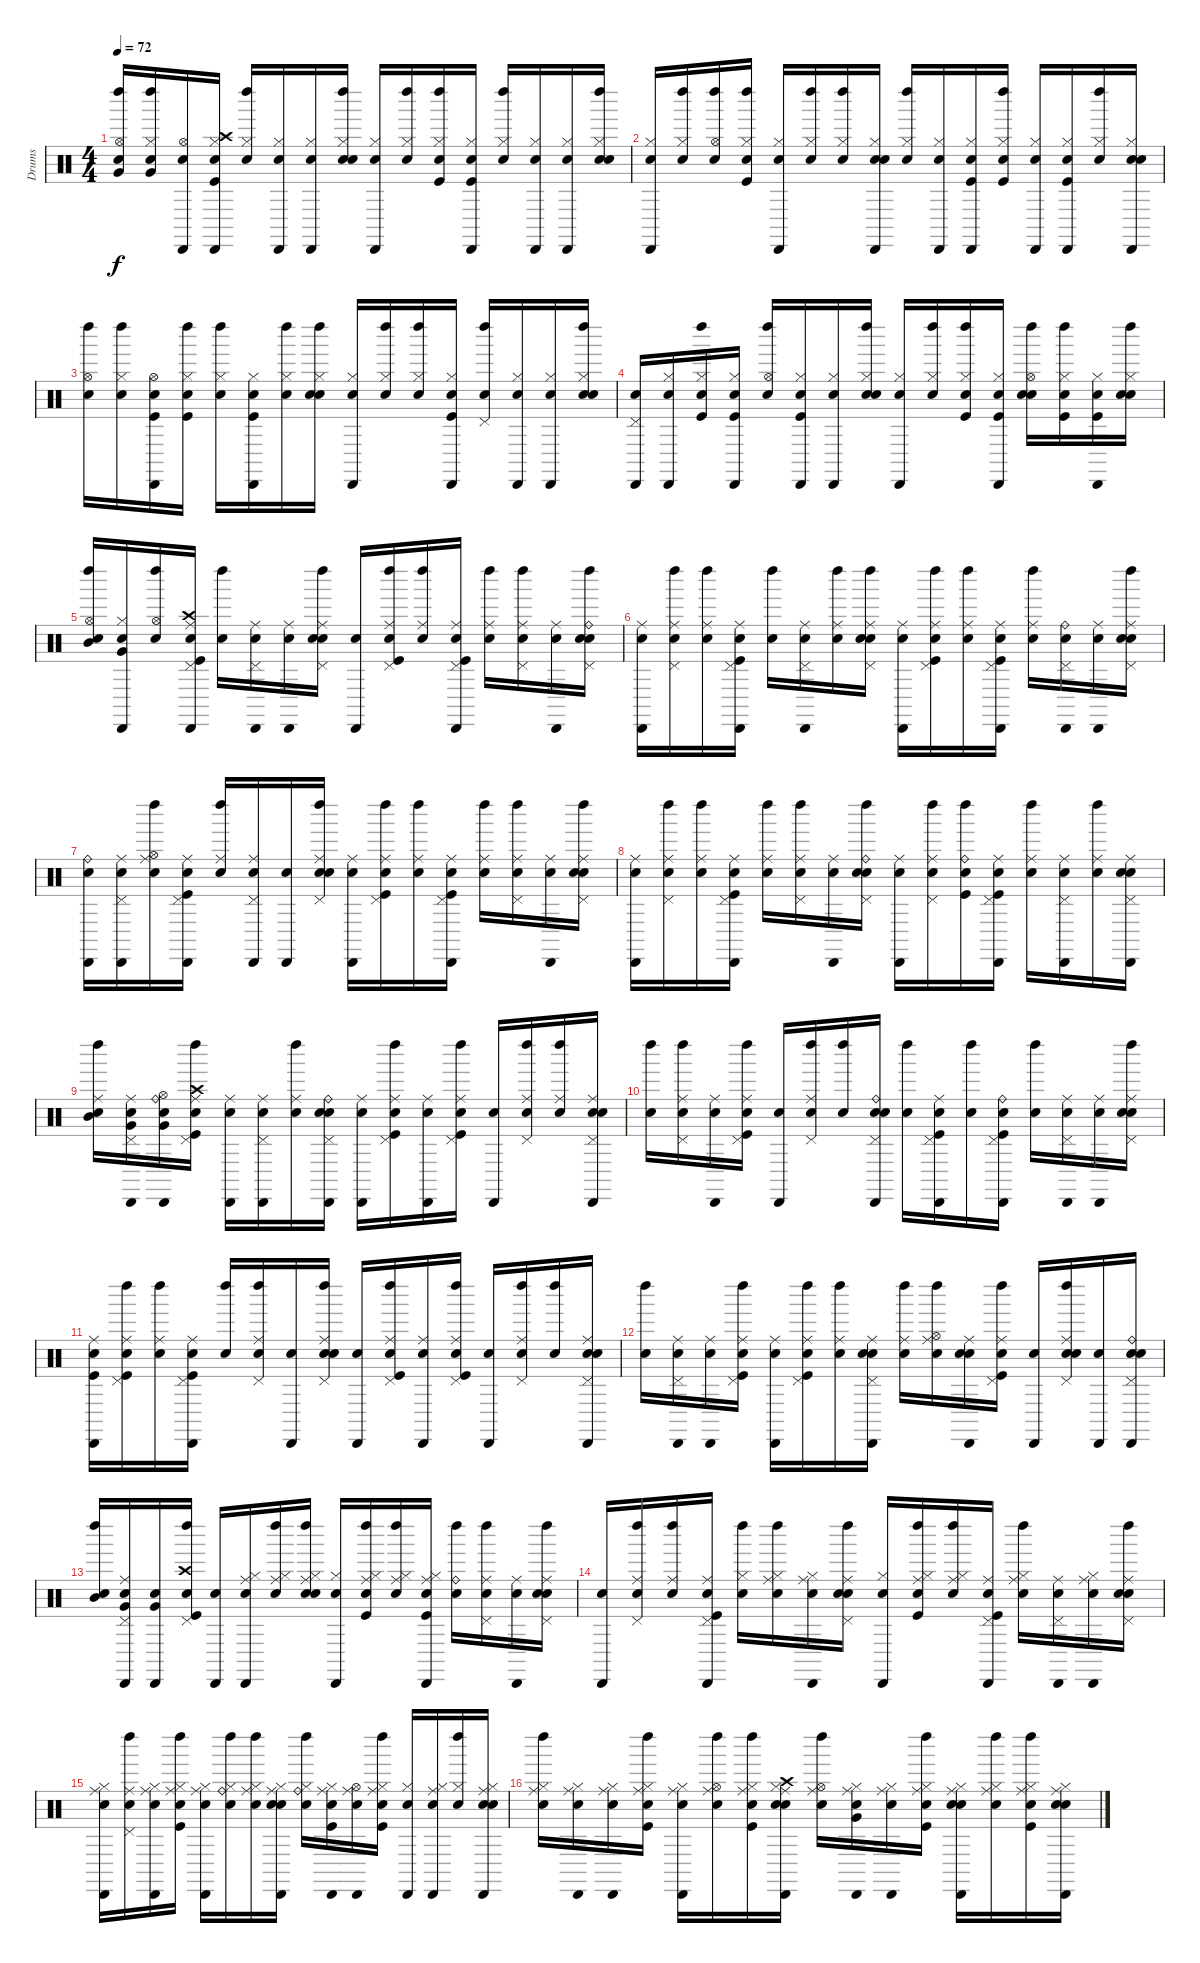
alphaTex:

\track ("Drums   " "Drums   ") {instrument percussion}
\staff {score}
\articulation defaults
\ts (4 4)
\tempo 72
\clef neutral
\ks c
("Snare (hit)" "Left Maraca (hit)" "Very Low Tom (hit)" "Hi-Hat (open)").16{dy f} ("Snare (hit)" "Left Maraca (hit)" "Hi-Hat (closed)" "Very Low Tom (hit)").16 ("Snare (hit)" "Cabasa (hit)" "Hi-Hat (open)").16 ("Snare (hit)" "Cabasa (hit)" "Kick (hit)" "Crash high (hit)" "Hi-Hat (closed)").16 ("Snare (hit)" "Hi-Hat (closed)" "Left Maraca (hit)").16 ("Snare (hit)" "Cabasa (hit)" "Hi-Hat (closed)").16 ("Snare (hit)" "Cabasa (hit)" "Hi-Hat (closed)").16 ("Snare (hit)" "Hi-Hat (closed)" "Snare (hit) 2" "Left Maraca (hit)").16 ("Snare (hit)" "Hi-Hat (closed)" "Cabasa (hit)").16 ("Snare (hit)" "Hi-Hat (closed)" "Left Maraca (hit)").16 ("Snare (hit)" "Kick (hit)" "Hi-Hat (closed)" "Left Maraca (hit)").16 ("Snare (hit)" "Kick (hit)" "Hi-Hat (closed)" "Cabasa (hit)").16 ("Snare (hit)" "Hi-Hat (closed)" "Left Maraca (hit)").16 ("Snare (hit)" "Hi-Hat (closed)" "Cabasa (hit)").16 ("Snare (hit)" "Hi-Hat (closed)" "Cabasa (hit)").16 ("Snare (hit)" "Snare (hit) 2" "Hi-Hat (closed)" "Left Maraca (hit)").16 |
("Snare (hit)" "Cabasa (hit)" "Hi-Hat (closed)").16 ("Snare (hit)" "Left Maraca (hit)" "Hi-Hat (closed)").16 ("Snare (hit)" "Hi-Hat (open)" "Left Maraca (hit)").16 ("Snare (hit)" "Hi-Hat (closed)" "Left Maraca (hit)" "Kick (hit)").16 ("Snare (hit)" "Cabasa (hit)" "Hi-Hat (closed)").16 ("Snare (hit)" "Hi-Hat (closed)" "Left Maraca (hit)").16 ("Snare (hit)" "Hi-Hat (closed)" "Left Maraca (hit)").16 ("Snare (hit)" "Hi-Hat (closed)" "Snare (hit) 2" "Cabasa (hit)").16 ("Snare (hit)" "Hi-Hat (closed)" "Left Maraca (hit)").16 ("Snare (hit)" "Cabasa (hit)" "Hi-Hat (closed)").16 ("Snare (hit)" "Kick (hit)" "Hi-Hat (closed)" "Cabasa (hit)").16 ("Snare (hit)" "Kick (hit)" "Left Maraca (hit)" "Hi-Hat (closed)").16 ("Snare (hit)" "Cabasa (hit)" "Hi-Hat (closed)").16 ("Snare (hit)" "Cabasa (hit)" "Kick (hit)" "Hi-Hat (closed)").16 ("Snare (hit)" "Hi-Hat (closed)" "Left Maraca (hit)").16 ("Snare (hit)" "Hi-Hat (closed)" "Cabasa (hit)" "Snare (hit) 2").16 |
("Snare (hit)" "Hi-Hat (open)" "Left Maraca (hit)").16 ("Snare (hit)" "Hi-Hat (closed)" "Left Maraca (hit)").16 ("Snare (hit)" "Kick (hit)" "Hi-Hat (open)" "Cabasa (hit)").16 ("Snare (hit)" "Kick (hit)" "Hi-Hat (closed)" "Left Maraca (hit)").16 ("Snare (hit)" "Left Maraca (hit)" "Hi-Hat (closed)").16 ("Snare (hit)" "Cabasa (hit)" "Kick (hit)" "Hi-Hat (closed)").16 ("Snare (hit)" "Hi-Hat (closed)" "Left Maraca (hit)").16 ("Snare (hit)" "Snare (hit) 2" "Hi-Hat (closed)" "Left Maraca (hit)").16 ("Snare (hit)" "Hi-Hat (closed)" "Cabasa (hit)").16 ("Snare (hit)" "Left Maraca (hit)" "Hi-Hat (closed)").16 ("Snare (hit)" "Left Maraca (hit)" "Hi-Hat (closed)").16 ("Snare (hit)" "Kick (hit)" "Hi-Hat (closed)" "Cabasa (hit)").16 ("Snare (hit)" "Pedal Hi-Hat (hit)" "Left Maraca (hit)").16 ("Snare (hit)" "Cabasa (hit)" "Hi-Hat (closed)").16 ("Snare (hit)" "Hi-Hat (closed)" "Cabasa (hit)").16 ("Snare (hit)" "Hi-Hat (closed)" "Left Maraca (hit)" "Snare (hit) 2").16 |
("Snare (hit)" "Pedal Hi-Hat (hit)" "Cabasa (hit)").16 ("Snare (hit)" "Cabasa (hit)" "Hi-Hat (closed)").16 ("Snare (hit)" "Hi-Hat (closed)" "Kick (hit)" "Left Maraca (hit)").16 ("Snare (hit)" "Cabasa (hit)" "Kick (hit)" "Hi-Hat (closed)").16 ("Snare (hit)" "Hi-Hat (open)" "Left Maraca (hit)").16 ("Snare (hit)" "Hi-Hat (closed)" "Cabasa (hit)" "Kick (hit)").16 ("Snare (hit)" "Hi-Hat (closed)" "Cabasa (hit)").16 ("Snare (hit)" "Snare (hit) 2" "Hi-Hat (closed)" "Left Maraca (hit)").16 ("Snare (hit)" "Hi-Hat (closed)" "Cabasa (hit)").16 ("Snare (hit)" "Left Maraca (hit)" "Hi-Hat (closed)").16 ("Snare (hit)" "Hi-Hat (closed)" "Kick (hit)" "Left Maraca (hit)").16 ("Snare (hit)" "Cabasa (hit)" "Kick (hit)" "Hi-Hat (closed)").16 ("Snare (hit)" "Hi-Hat (open)" "Snare (hit) 2" "Left Maraca (hit)").16 ("Snare (hit)" "Hi-Hat (closed)" "Kick (hit)" "Left Maraca (hit)").16 ("Snare (hit)" "Kick (hit)" "Hi-Hat (closed)" "Cabasa (hit)").16 ("Snare (hit)" "Hi-Hat (closed)" "Snare (hit) 2" "Left Maraca (hit)").16 |
("Snare (hit)" "Mid Tom (hit)" "Left Maraca (hit)" "Hi-Hat (open)").16 ("Snare (hit)" "Very Low Tom (hit)" "Hi-Hat (closed)" "Cabasa (hit)").16 ("Snare (hit)" "Hi-Hat (open)" "Left Maraca (hit)").16 ("Snare (hit)" "Pedal Hi-Hat (hit)" "Cabasa (hit)" "Kick (hit)" "Crash high (hit)" "Ride (middle)").16 ("Snare (hit)" "Left Maraca (hit)").16 ("Snare (hit)" "Ride (middle)" "Pedal Hi-Hat (hit)" "Cabasa (hit)").16 ("Snare (hit)" "Ride (middle)" "Cabasa (hit)").16 ("Snare (hit)" "Pedal Hi-Hat (hit)" "Left Maraca (hit)" "Snare (hit) 2" "Ride (middle)").16 ("Snare (hit)" "Cabasa (hit)").16 ("Snare (hit)" "Left Maraca (hit)" "Kick (hit)" "Pedal Hi-Hat (hit)" "Ride (middle)").16 ("Snare (hit)" "Ride (middle)" "Left Maraca (hit)").16 ("Snare (hit)" "Cabasa (hit)" "Pedal Hi-Hat (hit)" "Kick (hit)" "Ride (middle)").16 ("Snare (hit)" "Left Maraca (hit)" "Ride (middle)").16 ("Snare (hit)" "Ride (middle)" "Left Maraca (hit)" "Pedal Hi-Hat (hit)").16 ("Snare (hit)" "Ride (middle)" "Cabasa (hit)").16 ("Snare (hit)" "Ride (bell)" "Snare (hit) 2" "Pedal Hi-Hat (hit)" "Left Maraca (hit)").16 |
("Snare (hit)" "Cabasa (hit)" "Ride (middle)").16 ("Snare (hit)" "Ride (middle)" "Pedal Hi-Hat (hit)" "Left Maraca (hit)").16 ("Snare (hit)" "Ride (middle)" "Left Maraca (hit)").16 ("Snare (hit)" "Pedal Hi-Hat (hit)" "Cabasa (hit)" "Kick (hit)" "Ride (middle)").16 ("Snare (hit)" "Left Maraca (hit)").16 ("Snare (hit)" "Ride (middle)" "Cabasa (hit)" "Pedal Hi-Hat (hit)").16 ("Snare (hit)" "Left Maraca (hit)" "Ride (middle)").16 ("Snare (hit)" "Left Maraca (hit)" "Snare (hit) 2" "Pedal Hi-Hat (hit)" "Ride (middle)").16 ("Snare (hit)" "Cabasa (hit)" "Ride (middle)").16 ("Snare (hit)" "Pedal Hi-Hat (hit)" "Ride (middle)" "Left Maraca (hit)" "Kick (hit)").16 ("Snare (hit)" "Ride (middle)" "Left Maraca (hit)").16 ("Snare (hit)" "Kick (hit)" "Ride (middle)" "Cabasa (hit)" "Pedal Hi-Hat (hit)").16 ("Snare (hit)" "Ride (middle)" "Left Maraca (hit)").16 ("Snare (hit)" "Ride (bell)" "Pedal Hi-Hat (hit)" "Cabasa (hit)").16 ("Snare (hit)" "Cabasa (hit)" "Ride (middle)").16 ("Snare (hit)" "Snare (hit) 2" "Pedal Hi-Hat (hit)" "Ride (middle)" "Left Maraca (hit)").16 |
("Snare (hit)" "Ride (bell)" "Cabasa (hit)").16 ("Snare (hit)" "Pedal Hi-Hat (hit)" "Ride (middle)" "Cabasa (hit)").16 ("Snare (hit)" "Hi-Hat (open)" "Ride (middle)" "Left Maraca (hit)").16 ("Snare (hit)" "Ride (middle)" "Pedal Hi-Hat (hit)" "Cabasa (hit)" "Kick (hit)").16 ("Snare (hit)" "Left Maraca (hit)" "Ride (middle)").16 ("Snare (hit)" "Cabasa (hit)" "Pedal Hi-Hat (hit)" "Ride (middle)").16 ("Snare (hit)" "Cabasa (hit)").16 ("Snare (hit)" "Pedal Hi-Hat (hit)" "Snare (hit) 2" "Ride (middle)" "Left Maraca (hit)").16 ("Snare (hit)" "Ride (middle)" "Cabasa (hit)").16 ("Snare (hit)" "Ride (middle)" "Left Maraca (hit)" "Kick (hit)" "Pedal Hi-Hat (hit)").16 ("Snare (hit)" "Ride (middle)" "Left Maraca (hit)").16 ("Snare (hit)" "Pedal Hi-Hat (hit)" "Kick (hit)" "Ride (middle)" "Cabasa (hit)").16 ("Snare (hit)" "Ride (middle)" "Left Maraca (hit)").16 ("Snare (hit)" "Left Maraca (hit)" "Pedal Hi-Hat (hit)" "Ride (middle)").16 ("Snare (hit)" "Ride (middle)" "Cabasa (hit)").16 ("Snare (hit)" "Snare (hit) 2" "Pedal Hi-Hat (hit)" "Ride (middle)" "Left Maraca (hit)").16 |
("Snare (hit)" "Ride (middle)" "Cabasa (hit)").16 ("Snare (hit)" "Pedal Hi-Hat (hit)" "Ride (middle)" "Left Maraca (hit)").16 ("Snare (hit)" "Ride (middle)" "Left Maraca (hit)").16 ("Snare (hit)" "Cabasa (hit)" "Kick (hit)" "Pedal Hi-Hat (hit)" "Ride (middle)").16 ("Snare (hit)" "Ride (middle)" "Left Maraca (hit)").16 ("Snare (hit)" "Ride (middle)" "Pedal Hi-Hat (hit)" "Left Maraca (hit)").16 ("Snare (hit)" "Cabasa (hit)" "Ride (middle)").16 ("Snare (hit)" "Ride (bell)" "Left Maraca (hit)" "Snare (hit) 2" "Pedal Hi-Hat (hit)").16 ("Snare (hit)" "Ride (middle)" "Cabasa (hit)").16 ("Snare (hit)" "Left Maraca (hit)" "Ride (middle)" "Pedal Hi-Hat (hit)").16 ("Snare (hit)" "Ride (bell)" "Left Maraca (hit)" "Kick (hit)").16 ("Snare (hit)" "Cabasa (hit)" "Kick (hit)" "Ride (middle)" "Pedal Hi-Hat (hit)").16 ("Snare (hit)" "Ride (middle)" "Left Maraca (hit)").16 ("Snare (hit)" "Cabasa (hit)" "Ride (middle)" "Pedal Hi-Hat (hit)").16 ("Snare (hit)" "Ride (middle)" "Left Maraca (hit)").16 ("Snare (hit)" "Ride (middle)" "Snare (hit) 2" "Pedal Hi-Hat (hit)" "Cabasa (hit)").16 |
("Snare (hit)" "Ride (middle)" "Left Maraca (hit)" "Mid Tom (hit)").16 ("Snare (hit)" "Cabasa (hit)" "Pedal Hi-Hat (hit)" "Very Low Tom (hit)" "Ride (middle)").16 ("Snare (hit)" "Cabasa (hit)" "Hi-Hat (open)" "Very Low Tom (hit)" "Ride (bell)").16 ("Snare (hit)" "Ride (middle)" "Pedal Hi-Hat (hit)" "Kick (hit)" "Crash high (hit)" "Left Maraca (hit)").16 ("Snare (hit)" "Ride (middle)" "Cabasa (hit)").16 ("Snare (hit)" "Cabasa (hit)" "Pedal Hi-Hat (hit)" "Ride (middle)").16 ("Snare (hit)" "Left Maraca (hit)" "Ride (middle)").16 ("Snare (hit)" "Cabasa (hit)" "Pedal Hi-Hat (hit)" "Snare (hit) 2" "Ride (bell)").16 ("Snare (hit)" "Ride (middle)" "Cabasa (hit)").16 ("Snare (hit)" "Ride (middle)" "Kick (hit)" "Pedal Hi-Hat (hit)" "Left Maraca (hit)").16 ("Snare (hit)" "Ride (middle)" "Cabasa (hit)").16 ("Snare (hit)" "Ride (middle)" "Kick (hit)" "Pedal Hi-Hat (hit)" "Left Maraca (hit)").16 ("Snare (hit)" "Cabasa (hit)").16 ("Snare (hit)" "Ride (middle)" "Pedal Hi-Hat (hit)" "Left Maraca (hit)").16 ("Snare (hit)" "Left Maraca (hit)" "Ride (middle)").16 ("Snare (hit)" "Cabasa (hit)" "Ride (middle)" "Snare (hit) 2" "Pedal Hi-Hat (hit)").16 |
("Snare (hit)" "Left Maraca (hit)").16 ("Snare (hit)" "Pedal Hi-Hat (hit)" "Ride (middle)" "Left Maraca (hit)").16 ("Snare (hit)" "Cabasa (hit)" "Ride (middle)").16 ("Snare (hit)" "Pedal Hi-Hat (hit)" "Kick (hit)" "Ride (middle)" "Left Maraca (hit)").16 ("Snare (hit)" "Cabasa (hit)").16 ("Snare (hit)" "Pedal Hi-Hat (hit)" "Ride (middle)" "Left Maraca (hit)").16 ("Snare (hit)" "Left Maraca (hit)").16 ("Snare (hit)" "Snare (hit) 2" "Pedal Hi-Hat (hit)" "Ride (bell)" "Cabasa (hit)").16 ("Snare (hit)" "Left Maraca (hit)").16 ("Snare (hit)" "Ride (middle)" "Cabasa (hit)" "Kick (hit)" "Pedal Hi-Hat (hit)").16 ("Snare (hit)" "Left Maraca (hit)").16 ("Snare (hit)" "Pedal Hi-Hat (hit)" "Kick (hit)" "Cabasa (hit)" "Ride (bell)").16 ("Snare (hit)" "Left Maraca (hit)").16 ("Snare (hit)" "Cabasa (hit)" "Ride (middle)" "Pedal Hi-Hat (hit)").16 ("Snare (hit)" "Cabasa (hit)" "Ride (middle)").16 ("Snare (hit)" "Ride (middle)" "Pedal Hi-Hat (hit)" "Snare (hit) 2" "Left Maraca (hit)").16 |
("Snare (hit)" "Kick (hit)" "Ride (middle)" "Cabasa (hit)").16 ("Snare (hit)" "Pedal Hi-Hat (hit)" "Ride (middle)" "Kick (hit)" "Left Maraca (hit)").16 ("Snare (hit)" "Ride (middle)" "Left Maraca (hit)").16 ("Snare (hit)" "Ride (middle)" "Kick (hit)" "Cabasa (hit)" "Pedal Hi-Hat (hit)").16 ("Snare (hit)" "Left Maraca (hit)").16 ("Snare (hit)" "Ride (middle)" "Pedal Hi-Hat (hit)" "Left Maraca (hit)").16 ("Snare (hit)" "Cabasa (hit)").16 ("Snare (hit)" "Snare (hit) 2" "Pedal Hi-Hat (hit)" "Ride (middle)" "Left Maraca (hit)").16 ("Snare (hit)" "Cabasa (hit)").16 ("Snare (hit)" "Kick (hit)" "Pedal Hi-Hat (hit)" "Ride (middle)" "Left Maraca (hit)").16 ("Snare (hit)" "Ride (middle)" "Cabasa (hit)").16 ("Snare (hit)" "Ride (middle)" "Kick (hit)" "Pedal Hi-Hat (hit)" "Left Maraca (hit)").16 ("Snare (hit)" "Cabasa (hit)").16 ("Snare (hit)" "Left Maraca (hit)" "Pedal Hi-Hat (hit)" "Ride (middle)").16 ("Snare (hit)" "Left Maraca (hit)").16 ("Snare (hit)" "Pedal Hi-Hat (hit)" "Cabasa (hit)" "Snare (hit) 2" "Ride (middle)").16 |
("Snare (hit)" "Left Maraca (hit)").16 ("Snare (hit)" "Ride (middle)" "Pedal Hi-Hat (hit)" "Cabasa (hit)").16 ("Snare (hit)" "Cabasa (hit)" "Ride (middle)").16 ("Snare (hit)" "Pedal Hi-Hat (hit)" "Kick (hit)" "Left Maraca (hit)" "Ride (middle)").16 ("Snare (hit)" "Cabasa (hit)" "Ride (middle)").16 ("Snare (hit)" "Ride (middle)" "Pedal Hi-Hat (hit)" "Kick (hit)" "Left Maraca (hit)").16 ("Snare (hit)" "Ride (middle)" "Left Maraca (hit)").16 ("Snare (hit)" "Ride (middle)" "Snare (hit) 2" "Cabasa (hit)" "Pedal Hi-Hat (hit)").16 ("Snare (hit)" "Ride (middle)" "Left Maraca (hit)").16 ("Snare (hit)" "Ride (middle)" "Hi-Hat (open)" "Left Maraca (hit)").16 ("Snare (hit)" "Ride (middle)" "Cabasa (hit)" "Snare (hit) 2").16 ("Snare (hit)" "Pedal Hi-Hat (hit)" "Left Maraca (hit)" "Kick (hit)" "Ride (middle)").16 ("Snare (hit)" "Cabasa (hit)").16 ("Snare (hit)" "Pedal Hi-Hat (hit)" "Snare (hit) 2" "Ride (middle)" "Left Maraca (hit)").16 ("Snare (hit)" "Cabasa (hit)").16 ("Snare (hit)" "Snare (hit) 2" "Ride (bell)" "Cabasa (hit)" "Pedal Hi-Hat (hit)").16 |
("Snare (hit)" "Left Maraca (hit)" "Mid Tom (hit)").16 ("Snare (hit)" "Cabasa (hit)" "Pedal Hi-Hat (hit)" "Ride (middle)" "Very Low Tom (hit)").16 ("Snare (hit)" "Cabasa (hit)" "Very Low Tom (hit)").16 ("Snare (hit)" "Pedal Hi-Hat (hit)" "Kick (hit)" "Crash high (hit)" "Left Maraca (hit)").16 ("Snare (hit)" "Cabasa (hit)").16 ("Snare (hit)" "Hi-Hat (closed)" "Cabasa (hit)" "Ride (middle)").16 ("Snare (hit)" "Ride (middle)" "Left Maraca (hit)" "Hi-Hat (closed)").16 ("Snare (hit)" "Snare (hit) 2" "Hi-Hat (closed)" "Ride (middle)" "Left Maraca (hit)").16 ("Snare (hit)" "Cabasa (hit)" "Hi-Hat (closed)").16 ("Snare (hit)" "Kick (hit)" "Hi-Hat (closed)" "Ride (middle)" "Left Maraca (hit)").16 ("Snare (hit)" "Left Maraca (hit)" "Hi-Hat (closed)" "Ride (middle)").16 ("Snare (hit)" "Ride (middle)" "Cabasa (hit)" "Kick (hit)" "Hi-Hat (closed)").16 ("Snare (hit)" "Ride (bell)" "Left Maraca (hit)").16 ("Snare (hit)" "Ride (middle)" "Pedal Hi-Hat (hit)" "Left Maraca (hit)").16 ("Snare (hit)" "Ride (middle)" "Cabasa (hit)").16 ("Snare (hit)" "Ride (middle)" "Snare (hit) 2" "Pedal Hi-Hat (hit)" "Left Maraca (hit)").16 |
("Snare (hit)" "Cabasa (hit)").16 ("Snare (hit)" "Pedal Hi-Hat (hit)" "Left Maraca (hit)" "Ride (middle)").16 ("Snare (hit)" "Ride (middle)" "Left Maraca (hit)").16 ("Snare (hit)" "Pedal Hi-Hat (hit)" "Ride (middle)" "Kick (hit)" "Cabasa (hit)").16 ("Snare (hit)" "Hi-Hat (closed)" "Left Maraca (hit)").16 ("Snare (hit)" "Left Maraca (hit)" "Ride (middle)" "Hi-Hat (closed)").16 ("Snare (hit)" "Cabasa (hit)" "Hi-Hat (closed)" "Ride (middle)").16 ("Snare (hit)" "Ride (middle)" "Left Maraca (hit)" "Snare (hit) 2" "Pedal Hi-Hat (hit)").16 ("Snare (hit)" "Cabasa (hit)" "Hi-Hat (closed)").16 ("Snare (hit)" "Kick (hit)" "Hi-Hat (closed)" "Ride (middle)" "Left Maraca (hit)").16 ("Snare (hit)" "Hi-Hat (closed)" "Left Maraca (hit)" "Ride (middle)").16 ("Snare (hit)" "Ride (middle)" "Cabasa (hit)" "Pedal Hi-Hat (hit)" "Kick (hit)").16 ("Snare (hit)" "Ride (middle)" "Hi-Hat (closed)" "Left Maraca (hit)").16 ("Snare (hit)" "Cabasa (hit)" "Ride (middle)" "Pedal Hi-Hat (hit)").16 ("Snare (hit)" "Hi-Hat (closed)" "Cabasa (hit)" "Ride (middle)").16 ("Snare (hit)" "Pedal Hi-Hat (hit)" "Ride (middle)" "Snare (hit) 2" "Left Maraca (hit)").16 |
("Snare (hit)" "Ride (middle)" "Hi-Hat (closed)" "Cabasa (hit)").16 ("Snare (hit)" "Pedal Hi-Hat (hit)" "Ride (middle)" "Left Maraca (hit)").16 ("Snare (hit)" "Cabasa (hit)" "Hi-Hat (closed)" "Ride (middle)").16 ("Snare (hit)" "Ride (middle)" "Kick (hit)" "Hi-Hat (closed)" "Left Maraca (hit)").16 ("Snare (hit)" "Ride (middle)" "Hi-Hat (closed)" "Cabasa (hit)").16 ("Snare (hit)" "Ride (bell)" "Hi-Hat (closed)" "Left Maraca (hit)").16 ("Snare (hit)" "Hi-Hat (closed)" "Ride (middle)" "Left Maraca (hit)").16 ("Snare (hit)" "Cabasa (hit)" "Snare (hit) 2" "Hi-Hat (closed)" "Ride (middle)").16 ("Snare (hit)" "Left Maraca (hit)" "Hi-Hat (closed)" "Ride (bell)").16 ("Snare (hit)" "Ride (middle)" "Cabasa (hit)" "Kick (hit)" "Hi-Hat (closed)").16 ("Snare (hit)" "Cabasa (hit)" "Hi-Hat (open)" "Ride (middle)").16 ("Snare (hit)" "Ride (middle)" "Kick (hit)" "Hi-Hat (closed)" "Left Maraca (hit)").16 ("Snare (hit)" "Cabasa (hit)" "Hi-Hat (closed)").16 ("Snare (hit)" "Cabasa (hit)" "Hi-Hat (closed)" "Ride (middle)").16 ("Snare (hit)" "Hi-Hat (closed)" "Left Maraca (hit)").16 ("Snare (hit)" "Ride (middle)" "Cabasa (hit)" "Snare (hit) 2" "Hi-Hat (closed)").16 |
("Snare (hit)" "Hi-Hat (closed)" "Left Maraca (hit)" "Ride (middle)").16 ("Snare (hit)" "Cabasa (hit)" "Hi-Hat (closed)" "Ride (middle)").16 ("Snare (hit)" "Cabasa (hit)" "Hi-Hat (closed)" "Ride (middle)").16 ("Snare (hit)" "Kick (hit)" "Hi-Hat (closed)" "Ride (middle)" "Left Maraca (hit)").16 ("Snare (hit)" "Ride (middle)" "Hi-Hat (closed)" "Cabasa (hit)").16 ("Snare (hit)" "Hi-Hat (open)" "Left Maraca (hit)" "Ride (middle)").16 ("Snare (hit)" "Hi-Hat (closed)" "Kick (hit)" "Ride (middle)" "Left Maraca (hit)").16 ("Snare (hit)" "Ride (middle)" "Snare (hit) 2" "Hi-Hat (closed)" "Crash high (hit)" "Cabasa (hit)").16 ("Snare (hit)" "Hi-Hat (open)" "Ride (middle)" "Left Maraca (hit)").16 ("Snare (hit)" "Hi-Hat (closed)" "Very Low Tom (hit)" "Cabasa (hit)" "Ride (middle)").16 ("Snare (hit)" "Cabasa (hit)" "Ride (middle)" "Hi-Hat (closed)").16 ("Snare (hit)" "Ride (middle)" "Kick (hit)" "Hi-Hat (closed)" "Left Maraca (hit)").16 ("Snare (hit)" "Ride (middle)" "Cabasa (hit)" "Snare (hit) 2" "Hi-Hat (closed)").16 ("Snare (hit)" "Hi-Hat (closed)" "Ride (middle)" "Left Maraca (hit)").16 ("Snare (hit)" "Hi-Hat (closed)" "Ride (middle)" "Left Maraca (hit)" "Kick (hit)").16 ("Snare (hit)" "Cabasa (hit)" "Snare (hit) 2" "Hi-Hat (closed)" "Ride (middle)").16
